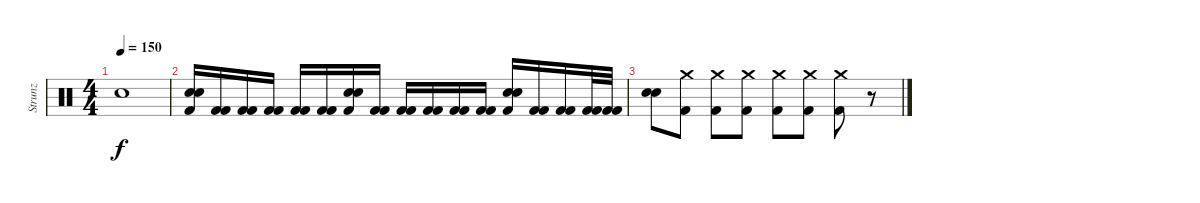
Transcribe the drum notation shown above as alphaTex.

\track ("Strunz" "Strunz") {instrument percussion}
\staff {score}
\articulation defaults
\ts (4 4)
\tempo 150
\clef neutral
\ks c "Snare (hit)".1{dy f}
|
("Kick (hit) 2" "Snare (hit) 2" "Snare (hit) 2").16 ("Kick (hit) 2" "Kick (hit) 2").16 ("Kick (hit) 2" "Kick (hit) 2").16 ("Kick (hit) 2" "Kick (hit) 2").16 ("Kick (hit) 2" "Kick (hit) 2").16 ("Kick (hit) 2" "Kick (hit) 2").16 ("Kick (hit) 2" "Snare (hit) 2" "Snare (hit) 2").16 ("Kick (hit) 2" "Kick (hit) 2").16 ("Kick (hit) 2" "Kick (hit) 2").16 ("Kick (hit) 2" "Kick (hit) 2").16 ("Kick (hit) 2" "Kick (hit) 2").16 ("Kick (hit) 2" "Kick (hit) 2").16 ("Kick (hit) 2" "Snare (hit) 2" "Snare (hit) 2").16 ("Kick (hit) 2" "Kick (hit) 2").16 ("Kick (hit) 2" "Kick (hit) 2").16 ("Kick (hit) 2" "Kick (hit) 2").32 ("Kick (hit) 2" "Kick (hit) 2").32 |
("Snare (hit) 2" "Snare (hit) 2").8 ("Kick (hit) 2" "Crash medium (hit)").8 ("Kick (hit) 2" "Crash medium (hit)").8 ("Kick (hit) 2" "Crash medium (hit)").8 ("Kick (hit) 2" "Crash medium (hit)").8 ("Kick (hit) 2" "Crash medium (hit)").8 ("Kick (hit) 2" "Crash medium (hit)").8 r.8
